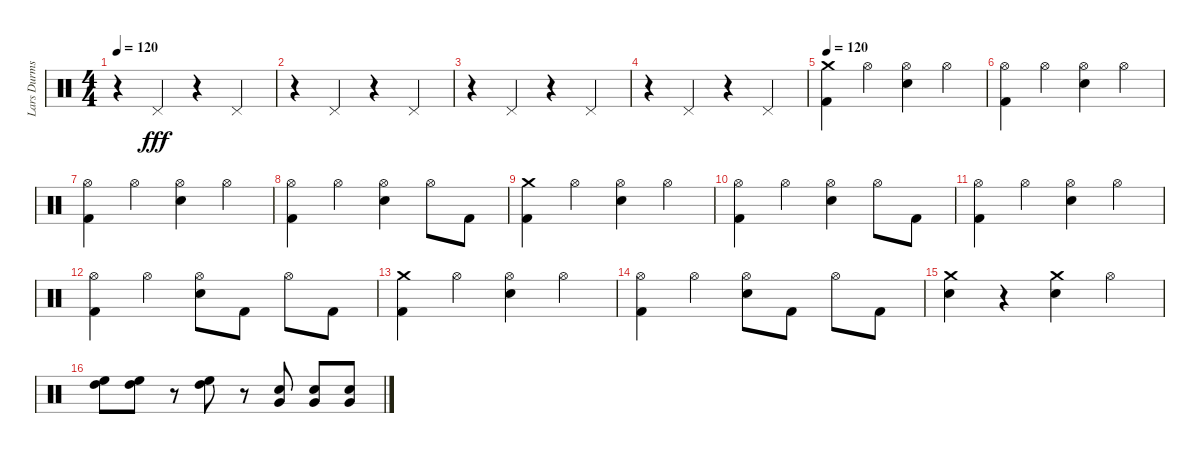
\track ("Lars Durms" "Lars Durms") {instrument percussion}
\staff {score}
\articulation defaults
\ts (4 4)
\tempo 120
\clef neutral
\ks c
r.4{dy fff} "Pedal Hi-Hat (hit)".4 r.4 "Pedal Hi-Hat (hit)".4 |
r.4 "Pedal Hi-Hat (hit)".4 r.4 "Pedal Hi-Hat (hit)".4 |
r.4 "Pedal Hi-Hat (hit)".4 r.4 "Pedal Hi-Hat (hit)".4 |
r.4 "Pedal Hi-Hat (hit)".4 r.4 "Pedal Hi-Hat (hit)".4 |
\tempo 120
("Kick (hit) 2" "Crash medium (hit)").4 "Hi-Hat (open)".4 ("Snare (hit) 2" "Hi-Hat (open)").4 "Hi-Hat (open)".4 |
("Kick (hit) 2" "Hi-Hat (open)").4 "Hi-Hat (open)".4 ("Snare (hit) 2" "Hi-Hat (open)").4 "Hi-Hat (open)".4 |
("Kick (hit) 2" "Hi-Hat (open)").4 "Hi-Hat (open)".4 ("Snare (hit) 2" "Hi-Hat (open)").4 "Hi-Hat (open)".4 |
("Kick (hit) 2" "Hi-Hat (open)").4 "Hi-Hat (open)".4 ("Snare (hit) 2" "Hi-Hat (open)").4 "Hi-Hat (open)".8 "Kick (hit) 2".8 |
("Crash medium (hit)" "Kick (hit) 2").4 "Hi-Hat (open)".4 ("Snare (hit) 2" "Hi-Hat (open)").4 "Hi-Hat (open)".4 |
("Kick (hit) 2" "Hi-Hat (open)").4 "Hi-Hat (open)".4 ("Snare (hit) 2" "Hi-Hat (open)").4 "Hi-Hat (open)".8 "Kick (hit) 2".8 |
("Kick (hit) 2" "Hi-Hat (open)").4 "Hi-Hat (open)".4 ("Snare (hit) 2" "Hi-Hat (open)").4 "Hi-Hat (open)".4 |
("Kick (hit) 2" "Hi-Hat (open)").4 "Hi-Hat (open)".4 ("Snare (hit) 2" "Hi-Hat (open)").8 "Kick (hit) 2".8 "Hi-Hat (open)".8 "Kick (hit) 2".8 |
("Crash medium (hit)" "Kick (hit) 2").4 "Hi-Hat (open)".4 ("Snare (hit) 2" "Hi-Hat (open)").4 "Hi-Hat (open)".4 |
("Kick (hit) 2" "Hi-Hat (open)").4 "Hi-Hat (open)".4 ("Snare (hit) 2" "Hi-Hat (open)").8 "Kick (hit) 2".8 "Hi-Hat (open)".8 "Kick (hit) 2".8 |
("Snare (hit) 2" "Crash medium (hit)").4 r.4 ("Crash medium (hit)" "Snare (hit) 2").4 "Hi-Hat (open)".4 |
("High Floor Tom (hit)" "High Tom (hit)").8 ("High Tom (hit)" "High Floor Tom (hit)").8 r.8 ("High Floor Tom (hit)" "High Tom (hit)").8 r.8 ("Snare (hit) 2" "Very Low Tom (hit)").8 ("Snare (hit) 2" "Very Low Tom (hit)").8 ("Snare (hit) 2" "Very Low Tom (hit)").8
